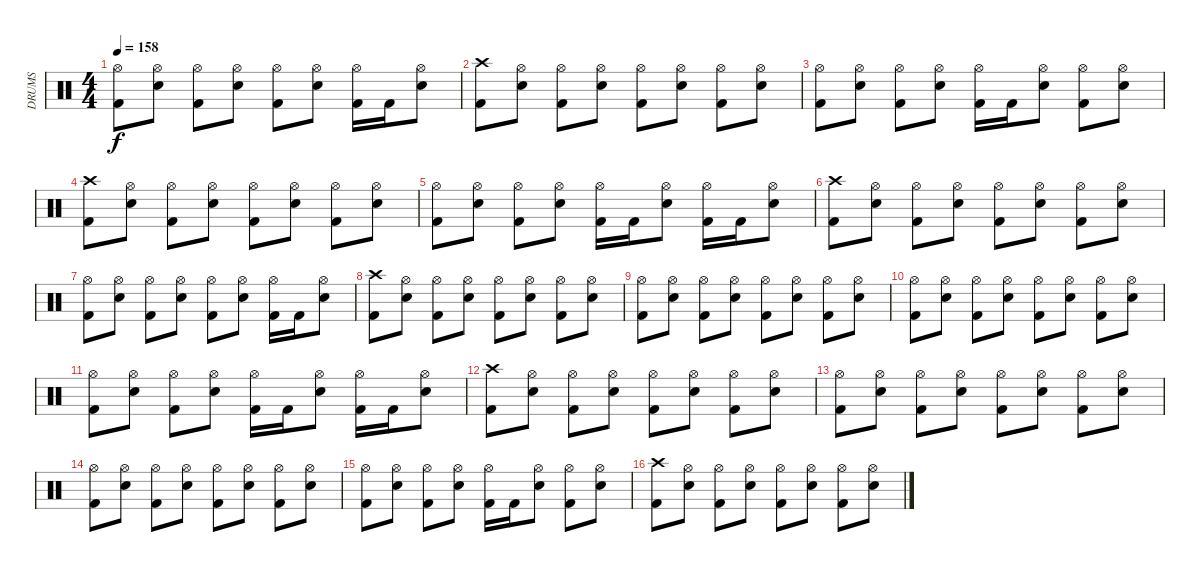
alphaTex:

\track ("DRUMS" "DRUMS") {instrument percussion}
\staff {score}
\articulation defaults
\ts (4 4)
\tempo 158
\clef neutral
\ks c
("Hi-Hat (open)" "Kick (hit) 2").8{dy f} ("Hi-Hat (open)" "Snare (hit) 2").8 ("Hi-Hat (open)" "Kick (hit) 2").8 ("Hi-Hat (open)" "Snare (hit) 2").8 ("Hi-Hat (open)" "Kick (hit) 2").8 ("Hi-Hat (open)" "Snare (hit) 2").8 ("Hi-Hat (open)" "Kick (hit) 2").16 "Kick (hit) 2".16 ("Hi-Hat (open)" "Snare (hit) 2").8 |
("Crash high (hit)" "Kick (hit) 2").8 ("Hi-Hat (open)" "Snare (hit) 2").8 ("Hi-Hat (open)" "Kick (hit) 2").8 ("Hi-Hat (open)" "Snare (hit) 2").8 ("Hi-Hat (open)" "Kick (hit) 2").8 ("Hi-Hat (open)" "Snare (hit) 2").8 ("Hi-Hat (open)" "Kick (hit) 2").8 ("Hi-Hat (open)" "Snare (hit) 2").8 |
("Hi-Hat (open)" "Kick (hit) 2").8 ("Hi-Hat (open)" "Snare (hit) 2").8 ("Hi-Hat (open)" "Kick (hit) 2").8 ("Hi-Hat (open)" "Snare (hit) 2").8 ("Hi-Hat (open)" "Kick (hit) 2").16 "Kick (hit) 2".16 ("Hi-Hat (open)" "Snare (hit) 2").8 ("Hi-Hat (open)" "Kick (hit) 2").8 ("Hi-Hat (open)" "Snare (hit) 2").8 |
("Crash high (hit)" "Kick (hit) 2").8 ("Hi-Hat (open)" "Snare (hit) 2").8 ("Hi-Hat (open)" "Kick (hit) 2").8 ("Hi-Hat (open)" "Snare (hit) 2").8 ("Hi-Hat (open)" "Kick (hit) 2").8 ("Hi-Hat (open)" "Snare (hit) 2").8 ("Hi-Hat (open)" "Kick (hit) 2").8 ("Hi-Hat (open)" "Snare (hit) 2").8 |
("Hi-Hat (open)" "Kick (hit) 2").8 ("Hi-Hat (open)" "Snare (hit) 2").8 ("Hi-Hat (open)" "Kick (hit) 2").8 ("Hi-Hat (open)" "Snare (hit) 2").8 ("Hi-Hat (open)" "Kick (hit) 2").16 "Kick (hit) 2".16 ("Hi-Hat (open)" "Snare (hit) 2").8 ("Hi-Hat (open)" "Kick (hit) 2").16 "Kick (hit) 2".16 ("Hi-Hat (open)" "Snare (hit) 2").8 |
("Crash high (hit)" "Kick (hit) 2").8 ("Hi-Hat (open)" "Snare (hit) 2").8 ("Hi-Hat (open)" "Kick (hit) 2").8 ("Hi-Hat (open)" "Snare (hit) 2").8 ("Hi-Hat (open)" "Kick (hit) 2").8 ("Hi-Hat (open)" "Snare (hit) 2").8 ("Hi-Hat (open)" "Kick (hit) 2").8 ("Hi-Hat (open)" "Snare (hit) 2").8 |
("Hi-Hat (open)" "Kick (hit) 2").8 ("Hi-Hat (open)" "Snare (hit) 2").8 ("Hi-Hat (open)" "Kick (hit) 2").8 ("Hi-Hat (open)" "Snare (hit) 2").8 ("Hi-Hat (open)" "Kick (hit) 2").8 ("Hi-Hat (open)" "Snare (hit) 2").8 ("Hi-Hat (open)" "Kick (hit) 2").16 "Kick (hit) 2".16 ("Hi-Hat (open)" "Snare (hit) 2").8 |
("Crash high (hit)" "Kick (hit) 2").8 ("Hi-Hat (open)" "Snare (hit) 2").8 ("Hi-Hat (open)" "Kick (hit) 2").8 ("Hi-Hat (open)" "Snare (hit) 2").8 ("Hi-Hat (open)" "Kick (hit) 2").8 ("Hi-Hat (open)" "Snare (hit) 2").8 ("Hi-Hat (open)" "Kick (hit) 2").8 ("Hi-Hat (open)" "Snare (hit) 2").8 |
("Hi-Hat (open)" "Kick (hit) 2").8 ("Hi-Hat (open)" "Snare (hit) 2").8 ("Hi-Hat (open)" "Kick (hit) 2").8 ("Hi-Hat (open)" "Snare (hit) 2").8 ("Hi-Hat (open)" "Kick (hit) 2").8 ("Hi-Hat (open)" "Snare (hit) 2").8 ("Hi-Hat (open)" "Kick (hit) 2").8 ("Hi-Hat (open)" "Snare (hit) 2").8 |
("Hi-Hat (open)" "Kick (hit) 2").8 ("Hi-Hat (open)" "Snare (hit) 2").8 ("Hi-Hat (open)" "Kick (hit) 2").8 ("Hi-Hat (open)" "Snare (hit) 2").8 ("Hi-Hat (open)" "Kick (hit) 2").8 ("Hi-Hat (open)" "Snare (hit) 2").8 ("Hi-Hat (open)" "Kick (hit) 2").8 ("Hi-Hat (open)" "Snare (hit) 2").8 |
("Hi-Hat (open)" "Kick (hit) 2").8 ("Hi-Hat (open)" "Snare (hit) 2").8 ("Hi-Hat (open)" "Kick (hit) 2").8 ("Hi-Hat (open)" "Snare (hit) 2").8 ("Hi-Hat (open)" "Kick (hit) 2").16 "Kick (hit) 2".16 ("Hi-Hat (open)" "Snare (hit) 2").8 ("Hi-Hat (open)" "Kick (hit) 2").16 "Kick (hit) 2".16 ("Hi-Hat (open)" "Snare (hit) 2").8 |
("Crash high (hit)" "Kick (hit) 2").8 ("Hi-Hat (open)" "Snare (hit) 2").8 ("Hi-Hat (open)" "Kick (hit) 2").8 ("Hi-Hat (open)" "Snare (hit) 2").8 ("Hi-Hat (open)" "Kick (hit) 2").8 ("Hi-Hat (open)" "Snare (hit) 2").8 ("Hi-Hat (open)" "Kick (hit) 2").8 ("Hi-Hat (open)" "Snare (hit) 2").8 |
("Hi-Hat (open)" "Kick (hit) 2").8 ("Hi-Hat (open)" "Snare (hit) 2").8 ("Hi-Hat (open)" "Kick (hit) 2").8 ("Hi-Hat (open)" "Snare (hit) 2").8 ("Hi-Hat (open)" "Kick (hit) 2").8 ("Hi-Hat (open)" "Snare (hit) 2").8 ("Hi-Hat (open)" "Kick (hit) 2").8 ("Hi-Hat (open)" "Snare (hit) 2").8 |
("Hi-Hat (open)" "Kick (hit) 2").8 ("Hi-Hat (open)" "Snare (hit) 2").8 ("Hi-Hat (open)" "Kick (hit) 2").8 ("Hi-Hat (open)" "Snare (hit) 2").8 ("Hi-Hat (open)" "Kick (hit) 2").8 ("Hi-Hat (open)" "Snare (hit) 2").8 ("Hi-Hat (open)" "Kick (hit) 2").8 ("Hi-Hat (open)" "Snare (hit) 2").8 |
("Hi-Hat (open)" "Kick (hit) 2").8 ("Hi-Hat (open)" "Snare (hit) 2").8 ("Hi-Hat (open)" "Kick (hit) 2").8 ("Hi-Hat (open)" "Snare (hit) 2").8 ("Hi-Hat (open)" "Kick (hit) 2").16 "Kick (hit) 2".16 ("Hi-Hat (open)" "Snare (hit) 2").8 ("Hi-Hat (open)" "Kick (hit) 2").8 ("Hi-Hat (open)" "Snare (hit) 2").8 |
("Crash high (hit)" "Kick (hit) 2").8 ("Hi-Hat (open)" "Snare (hit) 2").8 ("Hi-Hat (open)" "Kick (hit) 2").8 ("Hi-Hat (open)" "Snare (hit) 2").8 ("Hi-Hat (open)" "Kick (hit) 2").8 ("Hi-Hat (open)" "Snare (hit) 2").8 ("Hi-Hat (open)" "Kick (hit) 2").8 ("Hi-Hat (open)" "Snare (hit) 2").8
